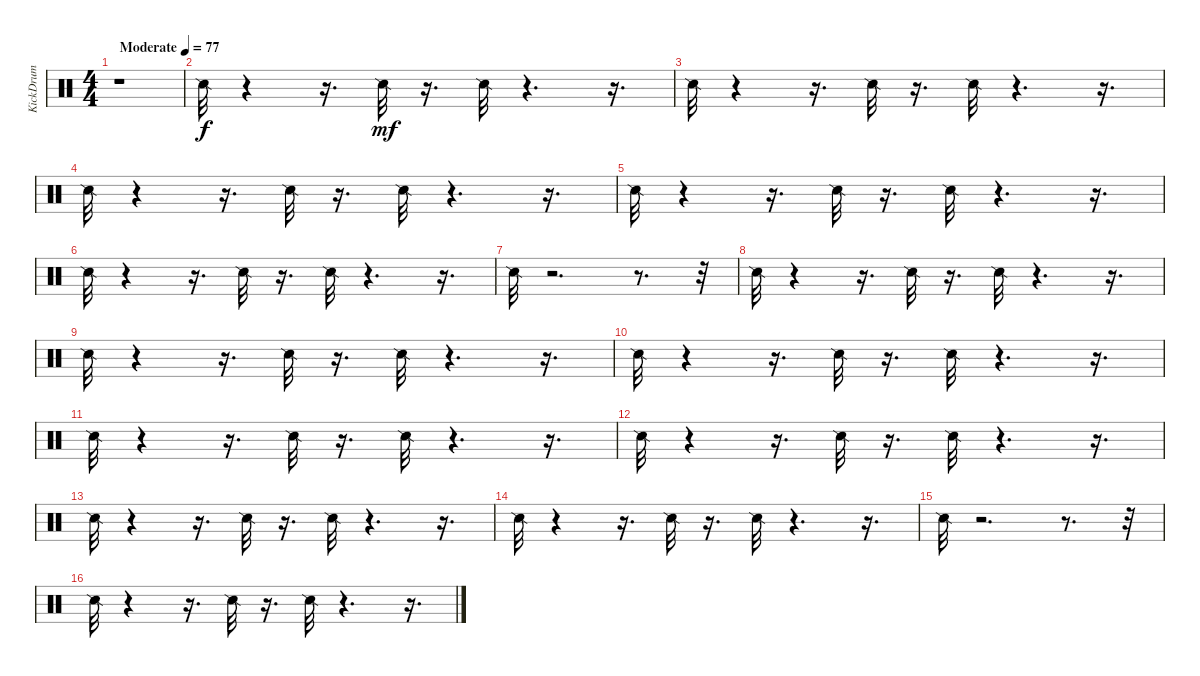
\track ("KickDrum" "KickDrum") {instrument percussion}
\staff {score}
\articulation defaults
\ts (4 4)
\tempo (77 "Moderate")
\clef neutral
\ks c
r.1{dy f} |
"Snare (side stick) 2".32 r.4 r.16{d} "Snare (side stick) 2".32{dy mf} r.16{d} "Snare (side stick) 2".32 r.4{d} r.16{d} |
"Snare (side stick) 2".32 r.4 r.16{d} "Snare (side stick) 2".32 r.16{d} "Snare (side stick) 2".32 r.4{d} r.16{d} |
"Snare (side stick) 2".32 r.4 r.16{d} "Snare (side stick) 2".32 r.16{d} "Snare (side stick) 2".32 r.4{d} r.16{d} |
"Snare (side stick) 2".32 r.4 r.16{d} "Snare (side stick) 2".32 r.16{d} "Snare (side stick) 2".32 r.4{d} r.16{d} |
"Snare (side stick) 2".32 r.4 r.16{d} "Snare (side stick) 2".32 r.16{d} "Snare (side stick) 2".32 r.4{d} r.16{d} |
"Snare (side stick) 2".32 r.2{d} r.8{d} r.32 |
"Snare (side stick) 2".32 r.4 r.16{d} "Snare (side stick) 2".32 r.16{d} "Snare (side stick) 2".32 r.4{d} r.16{d} |
"Snare (side stick) 2".32 r.4 r.16{d} "Snare (side stick) 2".32 r.16{d} "Snare (side stick) 2".32 r.4{d} r.16{d} |
"Snare (side stick) 2".32 r.4 r.16{d} "Snare (side stick) 2".32 r.16{d} "Snare (side stick) 2".32 r.4{d} r.16{d} |
"Snare (side stick) 2".32 r.4 r.16{d} "Snare (side stick) 2".32 r.16{d} "Snare (side stick) 2".32 r.4{d} r.16{d} |
"Snare (side stick) 2".32 r.4 r.16{d} "Snare (side stick) 2".32 r.16{d} "Snare (side stick) 2".32 r.4{d} r.16{d} |
"Snare (side stick) 2".32 r.4 r.16{d} "Snare (side stick) 2".32 r.16{d} "Snare (side stick) 2".32 r.4{d} r.16{d} |
"Snare (side stick) 2".32 r.4 r.16{d} "Snare (side stick) 2".32 r.16{d} "Snare (side stick) 2".32 r.4{d} r.16{d} |
"Snare (side stick) 2".32 r.2{d} r.8{d} r.32 |
"Snare (side stick) 2".32 r.4 r.16{d} "Snare (side stick) 2".32 r.16{d} "Snare (side stick) 2".32 r.4{d} r.16{d}
